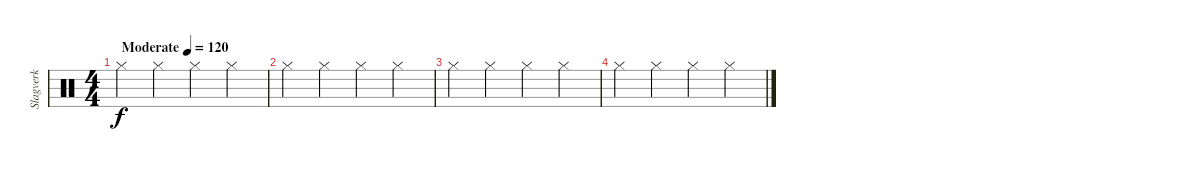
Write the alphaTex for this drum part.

\track ("Slagverk" "Slagverk") {instrument percussion}
\staff {score}
\articulation defaults
\ts (4 4)
\tempo (120 "Moderate")
\clef neutral
\ks c "Hi-Hat (closed)".4{dy f} "Hi-Hat (closed)".4 "Hi-Hat (closed)".4 "Hi-Hat (closed)".4
|
"Hi-Hat (closed)".4 "Hi-Hat (closed)".4 "Hi-Hat (closed)".4 "Hi-Hat (closed)".4 |
"Hi-Hat (closed)".4 "Hi-Hat (closed)".4 "Hi-Hat (closed)".4 "Hi-Hat (closed)".4 |
"Hi-Hat (closed)".4 "Hi-Hat (closed)".4 "Hi-Hat (closed)".4 "Hi-Hat (closed)".4
